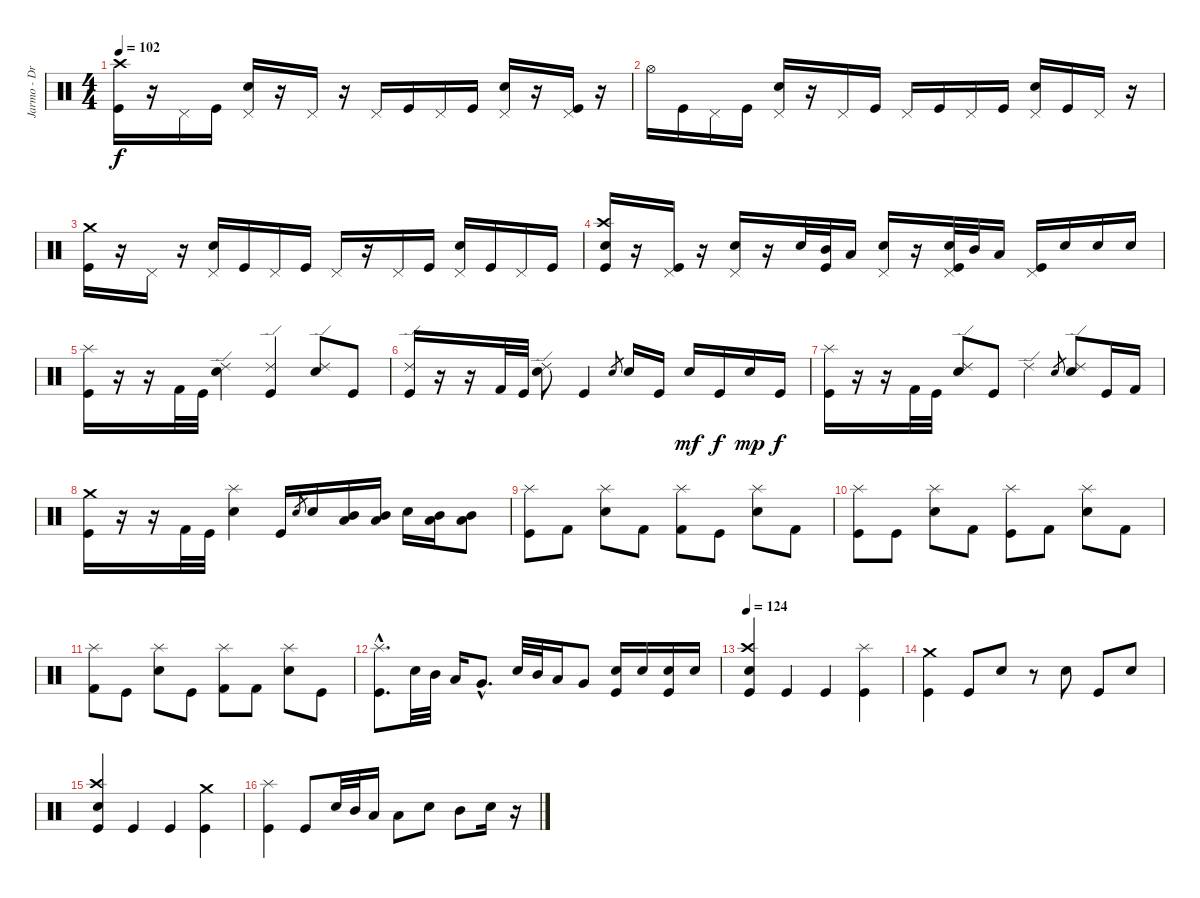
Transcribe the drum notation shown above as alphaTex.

\track ("Jarmo - Drums" "Jarmo - Dr") {instrument percussion}
\staff {score}
\articulation defaults
\ts (4 4)
\tempo 102
\clef neutral
\ks c
("Kick (hit)" "Crash high (hit)").16{dy f} r.16 "Pedal Hi-Hat (hit)".16 "Kick (hit)".16 ("Electric Snare (hit)" "Pedal Hi-Hat (hit)").16 r.16 "Pedal Hi-Hat (hit)".16 r.16 "Pedal Hi-Hat (hit)".16 "Kick (hit)".16 "Pedal Hi-Hat (hit)".16 "Kick (hit)".16 ("Electric Snare (hit)" "Pedal Hi-Hat (hit)").16 r.16 ("Kick (hit)" "Pedal Hi-Hat (hit)").16 r.16 |
"Hi-Hat (open)".16 "Kick (hit)".16 "Pedal Hi-Hat (hit)".16 "Kick (hit)".16 ("Electric Snare (hit)" "Pedal Hi-Hat (hit)").16 r.16 "Pedal Hi-Hat (hit)".16 "Kick (hit)".16 "Pedal Hi-Hat (hit)".16 "Kick (hit)".16 "Pedal Hi-Hat (hit)".16 "Kick (hit)".16 ("Electric Snare (hit)" "Pedal Hi-Hat (hit)").16 "Kick (hit)".16 "Pedal Hi-Hat (hit)".16 r.16 |
("Kick (hit)" "Crash medium (hit)").16 r.16 "Pedal Hi-Hat (hit)".16 r.16 ("Electric Snare (hit)" "Pedal Hi-Hat (hit)").16 "Kick (hit)".16 "Pedal Hi-Hat (hit)".16 "Kick (hit)".16 "Pedal Hi-Hat (hit)".16 r.16 "Pedal Hi-Hat (hit)".16 "Kick (hit)".16 ("Electric Snare (hit)" "Pedal Hi-Hat (hit)").16 "Kick (hit)".16 "Pedal Hi-Hat (hit)".16 "Kick (hit)".16 |
("Kick (hit)" "Electric Snare (hit)" "Crash high (hit)").16 r.16 ("Kick (hit)" "Pedal Hi-Hat (hit)").16 r.16 ("Electric Snare (hit)" "Pedal Hi-Hat (hit)").16 r.16 "Electric Snare (hit)".32 ("Kick (hit)" "Mid Tom (hit)").32 "Low Tom (hit)".16 ("Electric Snare (hit)" "Pedal Hi-Hat (hit)").16 r.16 ("Kick (hit)" "Electric Snare (hit)" "Pedal Hi-Hat (hit)").32 "Mid Tom (hit)".32 "Low Tom (hit)".16 ("Kick (hit)" "Pedal Hi-Hat (hit)").16 "Electric Snare (hit)".16 "Electric Snare (hit)".16 "Electric Snare (hit)".16 |
("Kick (hit)" "Splash (hit)").16 r.16 r.16 "Kick (hit) 2".32 "Kick (hit)".32 ("Electric Snare (hit)" "Ride (edge) 2").4 ("Kick (hit)" "Ride (edge) 2").4 ("Electric Snare (hit)" "Ride (edge) 2").8 "Kick (hit)".8 |
("Ride (edge) 2" "Kick (hit)").16 r.16 r.16 "Kick (hit) 2".32 "Kick (hit)".32 ("Electric Snare (hit)" "Ride (edge) 2").8 "Kick (hit)".4 "Snare (hit) 2".8{gr} "Electric Snare (hit)".16 "Kick (hit)".16 "Electric Snare (hit)".16{dy mf} "Kick (hit)".16{dy f} "Electric Snare (hit)".16{dy mp} "Kick (hit)".16{dy f} |
("Splash (hit)" "Kick (hit)").16 r.16 r.16 "Kick (hit) 2".32 "Kick (hit)".32 ("Electric Snare (hit)" "Ride (edge) 2").8 "Kick (hit)".8 "Ride (edge) 2".4 "Snare (hit) 2".8{gr} ("Electric Snare (hit)" "Ride (edge) 2").8 "Kick (hit)".16 "Kick (hit) 2".16 |
("Kick (hit)" "Crash medium (hit)").16 r.16 r.16 "Kick (hit) 2".32 "Kick (hit)".32 ("Electric Snare (hit)" "Splash (hit)").4 "Kick (hit)".16 "Snare (hit) 2".8{gr} "Electric Snare (hit)".16 ("Mid Tom (hit)" "Low Tom (hit)").16 ("Mid Tom (hit)" "Low Tom (hit)").16 "Electric Snare (hit)".16 ("Mid Tom (hit)" "Low Tom (hit)").16 ("Mid Tom (hit)" "Low Tom (hit)").8 |
("Kick (hit)" "Splash (hit)").8 "Kick (hit) 2".8 ("Electric Snare (hit)" "Splash (hit)").8 "Kick (hit) 2".8 ("Kick (hit) 2" "Splash (hit)").8 "Kick (hit)".8 ("Electric Snare (hit)" "Splash (hit)").8 "Kick (hit) 2".8 |
("Kick (hit)" "Splash (hit)").8 "Kick (hit)".8 ("Electric Snare (hit)" "Splash (hit)").8 "Kick (hit) 2".8 ("Kick (hit)" "Splash (hit)").8 "Kick (hit) 2".8 ("Electric Snare (hit)" "Splash (hit)").8 "Kick (hit) 2".8 |
("Kick (hit) 2" "Splash (hit)").8 "Kick (hit)".8 ("Electric Snare (hit)" "Splash (hit)").8 "Kick (hit)".8 ("Kick (hit) 2" "Splash (hit)").8 "Kick (hit) 2".8 ("Electric Snare (hit)" "Splash (hit)").8 "Kick (hit)".8 |
("Kick (hit)"{hac} "Splash (hit)"{hac}).8{d} "Electric Snare (hit)".32 "Mid Tom (hit)".32 "Low Tom (hit)".16 "Very Low Tom (hit)"{hac}.8{d} "Electric Snare (hit)".32 "Mid Tom (hit)".32 "Low Tom (hit)".16 "Very Low Tom (hit)".8 ("Electric Snare (hit)" "Kick (hit)").16 "Electric Snare (hit)".16 ("Electric Snare (hit)" "Kick (hit)").16 "Electric Snare (hit)".16 |
\tempo 124
("Crash high (hit)" "Electric Snare (hit)" "Kick (hit)").4 "Kick (hit)".4 "Kick (hit)".4 ("Kick (hit)" "Splash (hit)").4 |
("Kick (hit)" "Crash medium (hit)").4 "Kick (hit)".8 "Electric Snare (hit)".8 r.8 "Electric Snare (hit)".8 "Kick (hit)".8 "Electric Snare (hit)".8 |
("Crash high (hit)" "Electric Snare (hit)" "Kick (hit)").4 "Kick (hit)".4 "Kick (hit)".4 ("Kick (hit)" "Crash medium (hit)").4 |
("Kick (hit)" "Splash (hit)").4 "Kick (hit)".8 "Electric Snare (hit)".32 "Mid Tom (hit)".32 "Low Tom (hit)".16 "Low Tom (hit)".8 "Electric Snare (hit)".8 "Mid Tom (hit)".8 "Electric Snare (hit)".16 r.16
